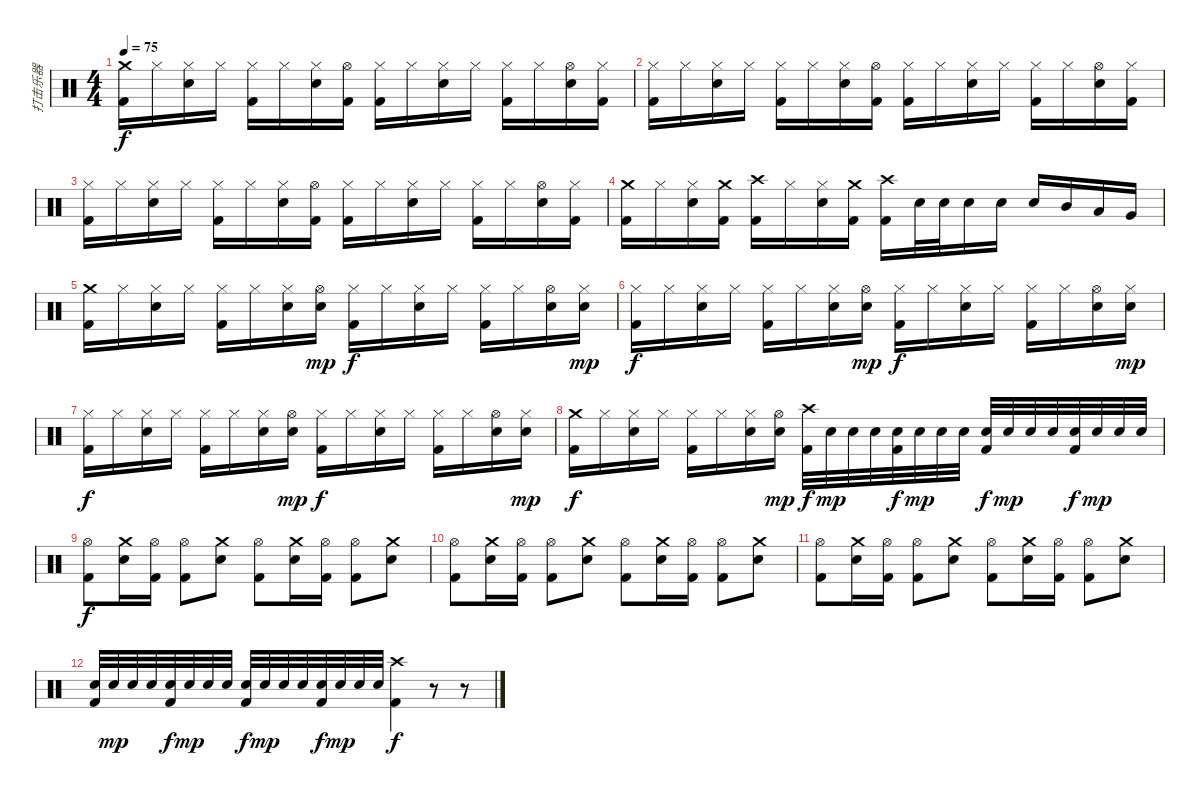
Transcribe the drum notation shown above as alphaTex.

\track ("打击乐器" "打击乐器") {instrument percussion}
\staff {score}
\articulation defaults
\ts (4 4)
\tempo 75
\clef neutral
\ks c
("Crash medium (hit)" "Kick (hit) 2").16{dy f} "Hi-Hat (closed)".16 ("Hi-Hat (closed)" "Electric Snare (hit)").16 "Hi-Hat (closed)".16 ("Hi-Hat (closed)" "Kick (hit) 2").16 "Hi-Hat (closed)".16 ("Hi-Hat (closed)" "Electric Snare (hit)").16 ("Hi-Hat (open)" "Kick (hit) 2").16 ("Hi-Hat (closed)" "Kick (hit) 2").16 "Hi-Hat (closed)".16 ("Hi-Hat (closed)" "Electric Snare (hit)").16 "Hi-Hat (closed)".16 ("Hi-Hat (closed)" "Kick (hit) 2").16 "Hi-Hat (closed)".16 ("Hi-Hat (open)" "Electric Snare (hit)").16 ("Hi-Hat (closed)" "Kick (hit) 2").16 |
("Hi-Hat (closed)" "Kick (hit) 2").16 "Hi-Hat (closed)".16 ("Hi-Hat (closed)" "Electric Snare (hit)").16 "Hi-Hat (closed)".16 ("Hi-Hat (closed)" "Kick (hit) 2").16 "Hi-Hat (closed)".16 ("Hi-Hat (closed)" "Electric Snare (hit)").16 ("Hi-Hat (open)" "Kick (hit) 2").16 ("Hi-Hat (closed)" "Kick (hit) 2").16 "Hi-Hat (closed)".16 ("Hi-Hat (closed)" "Electric Snare (hit)").16 "Hi-Hat (closed)".16 ("Hi-Hat (closed)" "Kick (hit) 2").16 "Hi-Hat (closed)".16 ("Hi-Hat (open)" "Electric Snare (hit)").16 ("Hi-Hat (closed)" "Kick (hit) 2").16 |
("Hi-Hat (closed)" "Kick (hit) 2").16 "Hi-Hat (closed)".16 ("Hi-Hat (closed)" "Electric Snare (hit)").16 "Hi-Hat (closed)".16 ("Hi-Hat (closed)" "Kick (hit) 2").16 "Hi-Hat (closed)".16 ("Hi-Hat (closed)" "Electric Snare (hit)").16 ("Hi-Hat (open)" "Kick (hit) 2").16 ("Hi-Hat (closed)" "Kick (hit) 2").16 "Hi-Hat (closed)".16 ("Hi-Hat (closed)" "Electric Snare (hit)").16 "Hi-Hat (closed)".16 ("Hi-Hat (closed)" "Kick (hit) 2").16 "Hi-Hat (closed)".16 ("Hi-Hat (open)" "Electric Snare (hit)").16 ("Hi-Hat (closed)" "Kick (hit) 2").16 |
("Crash medium (hit)" "Kick (hit) 2").16 "Hi-Hat (closed)".16 ("Hi-Hat (closed)" "Electric Snare (hit)").16 ("Crash medium (hit)" "Kick (hit) 2").16 ("Crash high (hit)" "Kick (hit) 2").16 "Hi-Hat (closed)".16 ("Hi-Hat (closed)" "Electric Snare (hit)").16 ("Crash medium (hit)" "Kick (hit) 2").16 ("Crash high (hit)" "Kick (hit) 2").16 "Electric Snare (hit)".32 "Electric Snare (hit)".32 "Electric Snare (hit)".16 "Electric Snare (hit)".16 "Electric Snare (hit)".16 "Mid Tom (hit)".16 "Low Tom (hit)".16 "Very Low Tom (hit)".16 |
("Crash medium (hit)" "Kick (hit) 2").16 "Hi-Hat (closed)".16 ("Hi-Hat (closed)" "Electric Snare (hit)").16 "Hi-Hat (closed)".16 ("Hi-Hat (closed)" "Kick (hit) 2").16 "Hi-Hat (closed)".16 ("Hi-Hat (closed)" "Electric Snare (hit)").16 ("Hi-Hat (open)" "Electric Snare (hit)").16{dy mp} ("Hi-Hat (closed)" "Kick (hit) 2").16{dy f} "Hi-Hat (closed)".16 ("Hi-Hat (closed)" "Electric Snare (hit)").16 "Hi-Hat (closed)".16 ("Hi-Hat (closed)" "Kick (hit) 2").16 "Hi-Hat (closed)".16 ("Hi-Hat (open)" "Electric Snare (hit)").16 ("Hi-Hat (closed)" "Electric Snare (hit)").16{dy mp} |
("Hi-Hat (closed)" "Kick (hit) 2").16{dy f} "Hi-Hat (closed)".16 ("Hi-Hat (closed)" "Electric Snare (hit)").16 "Hi-Hat (closed)".16 ("Hi-Hat (closed)" "Kick (hit) 2").16 "Hi-Hat (closed)".16 ("Hi-Hat (closed)" "Electric Snare (hit)").16 ("Hi-Hat (open)" "Electric Snare (hit)").16{dy mp} ("Hi-Hat (closed)" "Kick (hit) 2").16{dy f} "Hi-Hat (closed)".16 ("Hi-Hat (closed)" "Electric Snare (hit)").16 "Hi-Hat (closed)".16 ("Hi-Hat (closed)" "Kick (hit) 2").16 "Hi-Hat (closed)".16 ("Hi-Hat (open)" "Electric Snare (hit)").16 ("Hi-Hat (closed)" "Electric Snare (hit)").16{dy mp} |
("Hi-Hat (closed)" "Kick (hit) 2").16{dy f} "Hi-Hat (closed)".16 ("Hi-Hat (closed)" "Electric Snare (hit)").16 "Hi-Hat (closed)".16 ("Hi-Hat (closed)" "Kick (hit) 2").16 "Hi-Hat (closed)".16 ("Hi-Hat (closed)" "Electric Snare (hit)").16 ("Hi-Hat (open)" "Electric Snare (hit)").16{dy mp} ("Hi-Hat (closed)" "Kick (hit) 2").16{dy f} "Hi-Hat (closed)".16 ("Hi-Hat (closed)" "Electric Snare (hit)").16 "Hi-Hat (closed)".16 ("Hi-Hat (closed)" "Kick (hit) 2").16 "Hi-Hat (closed)".16 ("Hi-Hat (open)" "Electric Snare (hit)").16 ("Hi-Hat (closed)" "Electric Snare (hit)").16{dy mp} |
("Crash medium (hit)" "Kick (hit) 2").16{dy f} "Hi-Hat (closed)".16 ("Hi-Hat (closed)" "Electric Snare (hit)").16 "Hi-Hat (closed)".16 ("Hi-Hat (closed)" "Kick (hit) 2").16 "Hi-Hat (closed)".16 ("Hi-Hat (closed)" "Electric Snare (hit)").16 ("Hi-Hat (open)" "Electric Snare (hit)").16{dy mp} ("Crash high (hit)" "Kick (hit) 2").32{dy f} "Electric Snare (hit)".32{dy mp} "Electric Snare (hit)".32 "Electric Snare (hit)".32 ("Electric Snare (hit)" "Kick (hit) 2").32{dy f} "Electric Snare (hit)".32{dy mp} "Electric Snare (hit)".32 "Electric Snare (hit)".32 ("Electric Snare (hit)" "Kick (hit) 2").32{dy f} "Electric Snare (hit)".32{dy mp} "Electric Snare (hit)".32 "Electric Snare (hit)".32 ("Electric Snare (hit)" "Kick (hit) 2").32{dy f} "Electric Snare (hit)".32{dy mp} "Electric Snare (hit)".32 "Electric Snare (hit)".32 |
("Hi-Hat (open)" "Kick (hit) 2").8{dy f} ("Crash medium (hit)" "Electric Snare (hit)").16 ("Hi-Hat (open)" "Kick (hit) 2").16 ("Hi-Hat (open)" "Kick (hit) 2").8 ("Crash medium (hit)" "Electric Snare (hit)").8 ("Hi-Hat (open)" "Kick (hit) 2").8 ("Crash medium (hit)" "Electric Snare (hit)").16 ("Hi-Hat (open)" "Kick (hit) 2").16 ("Hi-Hat (open)" "Kick (hit) 2").8 ("Crash medium (hit)" "Electric Snare (hit)").8 |
("Hi-Hat (open)" "Kick (hit) 2").8 ("Crash medium (hit)" "Electric Snare (hit)").16 ("Hi-Hat (open)" "Kick (hit) 2").16 ("Hi-Hat (open)" "Kick (hit) 2").8 ("Crash medium (hit)" "Electric Snare (hit)").8 ("Hi-Hat (open)" "Kick (hit) 2").8 ("Crash medium (hit)" "Electric Snare (hit)").16 ("Hi-Hat (open)" "Kick (hit) 2").16 ("Hi-Hat (open)" "Kick (hit) 2").8 ("Crash medium (hit)" "Electric Snare (hit)").8 |
("Hi-Hat (open)" "Kick (hit) 2").8 ("Crash medium (hit)" "Electric Snare (hit)").16 ("Hi-Hat (open)" "Kick (hit) 2").16 ("Hi-Hat (open)" "Kick (hit) 2").8 ("Crash medium (hit)" "Electric Snare (hit)").8 ("Hi-Hat (open)" "Kick (hit) 2").8 ("Crash medium (hit)" "Electric Snare (hit)").16 ("Hi-Hat (open)" "Kick (hit) 2").16 ("Hi-Hat (open)" "Kick (hit) 2").8 ("Crash medium (hit)" "Electric Snare (hit)").8 |
("Electric Snare (hit)" "Kick (hit) 2").32 "Electric Snare (hit)".32{dy mp} "Electric Snare (hit)".32 "Electric Snare (hit)".32 ("Electric Snare (hit)" "Kick (hit) 2").32{dy f} "Electric Snare (hit)".32{dy mp} "Electric Snare (hit)".32 "Electric Snare (hit)".32 ("Electric Snare (hit)" "Kick (hit) 2").32{dy f} "Electric Snare (hit)".32{dy mp} "Electric Snare (hit)".32 "Electric Snare (hit)".32 ("Electric Snare (hit)" "Kick (hit) 2").32{dy f} "Electric Snare (hit)".32{dy mp} "Electric Snare (hit)".32 "Electric Snare (hit)".32 ("Crash high (hit)" "Kick (hit) 2").4{dy f} r.8 r.8
